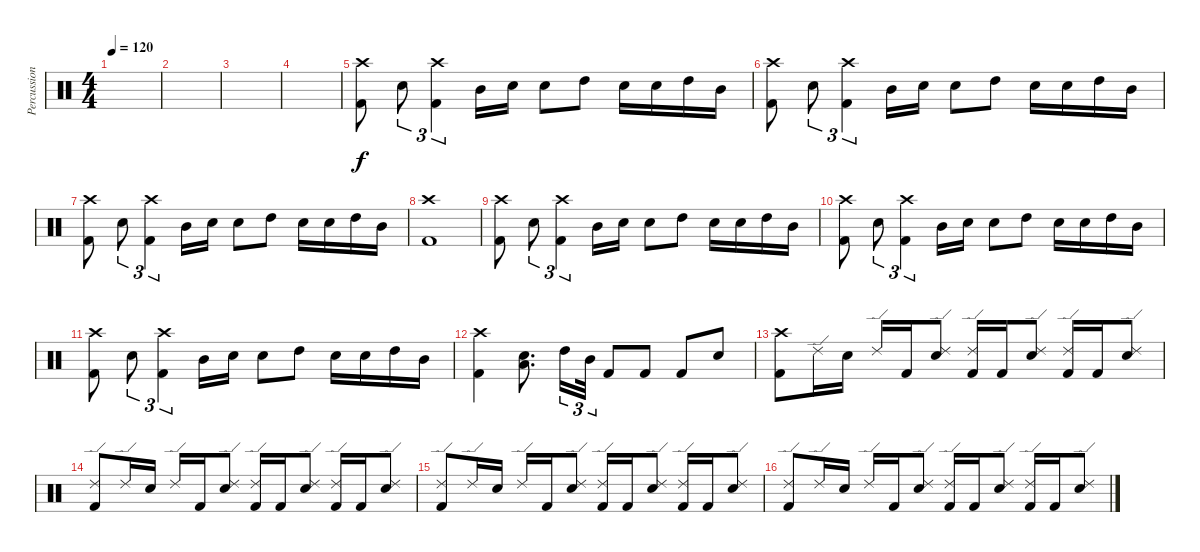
\track ("Percussion" "Percussion") {instrument percussion}
\staff {score}
\articulation defaults
\ts (4 4)
\tempo 120
\clef neutral
\ks c
|
|
|
|
("Crash high (hit)" "Kick (hit) 2").8 "Snare (hit) 2".8{tu (3 2)} ("Crash high (hit)" "Kick (hit) 2").4{tu (3 2)} "Mid Tom (hit)".16 "Snare (hit) 2".16 "Snare (hit) 2".8 "High Tom (hit)".8 "Snare (hit) 2".16 "Snare (hit) 2".16 "High Tom (hit)".16 "Mid Tom (hit)".16 |
("Crash high (hit)" "Kick (hit) 2").8 "Snare (hit) 2".8{tu (3 2)} ("Crash high (hit)" "Kick (hit) 2").4{tu (3 2)} "Mid Tom (hit)".16 "Snare (hit) 2".16 "Snare (hit) 2".8 "High Tom (hit)".8 "Snare (hit) 2".16 "Snare (hit) 2".16 "High Tom (hit)".16 "Mid Tom (hit)".16 |
("Crash high (hit)" "Kick (hit) 2").8 "Snare (hit) 2".8{tu (3 2)} ("Crash high (hit)" "Kick (hit) 2").4{tu (3 2)} "Mid Tom (hit)".16 "Snare (hit) 2".16 "Snare (hit) 2".8 "High Tom (hit)".8 "Snare (hit) 2".16 "Snare (hit) 2".16 "High Tom (hit)".16 "Mid Tom (hit)".16 |
("Crash high (hit)" "Kick (hit) 2").1 |
("Crash high (hit)" "Kick (hit) 2").8 "Snare (hit) 2".8{tu (3 2)} ("Crash high (hit)" "Kick (hit) 2").4{tu (3 2)} "Mid Tom (hit)".16 "Snare (hit) 2".16 "Snare (hit) 2".8 "High Tom (hit)".8 "Snare (hit) 2".16 "Snare (hit) 2".16 "High Tom (hit)".16 "Mid Tom (hit)".16 |
("Crash high (hit)" "Kick (hit) 2").8 "Snare (hit) 2".8{tu (3 2)} ("Crash high (hit)" "Kick (hit) 2").4{tu (3 2)} "Mid Tom (hit)".16 "Snare (hit) 2".16 "Snare (hit) 2".8 "High Tom (hit)".8 "Snare (hit) 2".16 "Snare (hit) 2".16 "High Tom (hit)".16 "Mid Tom (hit)".16 |
("Crash high (hit)" "Kick (hit) 2").8 "Snare (hit) 2".8{tu (3 2)} ("Crash high (hit)" "Kick (hit) 2").4{tu (3 2)} "Mid Tom (hit)".16 "Snare (hit) 2".16 "Snare (hit) 2".8 "High Tom (hit)".8 "Snare (hit) 2".16 "Snare (hit) 2".16 "High Tom (hit)".16 "Mid Tom (hit)".16 |
("Crash high (hit)" "Kick (hit) 2").4 ("Low Floor Tom (hit)" "Snare (hit) 2").8{d} "High Tom (hit)".16{tu (3 2)} "Mid Tom (hit)".32{tu (3 2)} "Kick (hit) 2".8 "Kick (hit) 2".8 "Kick (hit) 2".8 "Snare (hit) 2".8 |
("Crash high (hit)" "Kick (hit) 2").8 "Ride (edge) 2".16 "Snare (hit) 2".16 "Ride (edge) 2".16 "Kick (hit) 2".16 ("Ride (edge) 2" "Snare (hit) 2").8 ("Ride (edge) 2" "Kick (hit) 2").16 "Kick (hit) 2".16 ("Ride (edge) 2" "Snare (hit) 2").8 ("Ride (edge) 2" "Kick (hit) 2").16 "Kick (hit) 2".16 ("Ride (edge) 2" "Snare (hit) 2").8 |
("Ride (edge) 2" "Kick (hit) 2").8 "Ride (edge) 2".16 "Snare (hit) 2".16 "Ride (edge) 2".16 "Kick (hit) 2".16 ("Ride (edge) 2" "Snare (hit) 2").8 ("Ride (edge) 2" "Kick (hit) 2").16 "Kick (hit) 2".16 ("Ride (edge) 2" "Snare (hit) 2").8 ("Ride (edge) 2" "Kick (hit) 2").16 "Kick (hit) 2".16 ("Ride (edge) 2" "Snare (hit) 2").8 |
("Ride (edge) 2" "Kick (hit) 2").8 "Ride (edge) 2".16 "Snare (hit) 2".16 "Ride (edge) 2".16 "Kick (hit) 2".16 ("Ride (edge) 2" "Snare (hit) 2").8 ("Ride (edge) 2" "Kick (hit) 2").16 "Kick (hit) 2".16 ("Ride (edge) 2" "Snare (hit) 2").8 ("Ride (edge) 2" "Kick (hit) 2").16 "Kick (hit) 2".16 ("Ride (edge) 2" "Snare (hit) 2").8 |
("Ride (edge) 2" "Kick (hit) 2").8 "Ride (edge) 2".16 "Snare (hit) 2".16 "Ride (edge) 2".16 "Kick (hit) 2".16 ("Ride (edge) 2" "Snare (hit) 2").8 ("Ride (edge) 2" "Kick (hit) 2").16 "Kick (hit) 2".16 ("Ride (edge) 2" "Snare (hit) 2").8 ("Ride (edge) 2" "Kick (hit) 2").16 "Kick (hit) 2".16 ("Ride (edge) 2" "Snare (hit) 2").8
